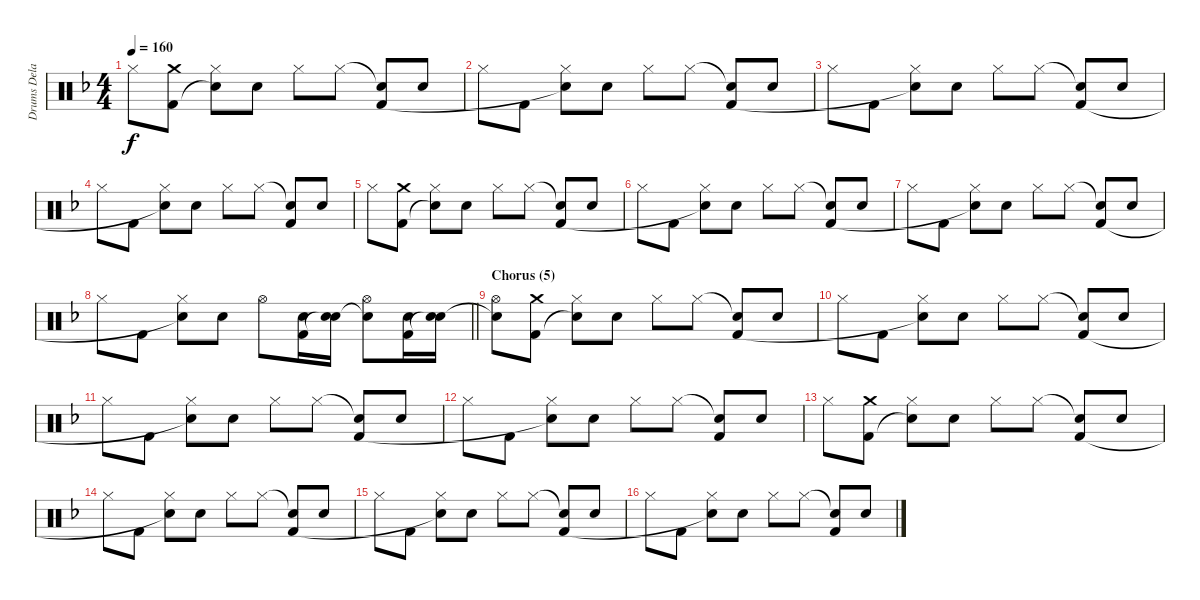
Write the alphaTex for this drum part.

\track ("Drums Delay" "Drums Dela") {instrument percussion}
\staff {score}
\articulation defaults
\ts (4 4)
\tempo 160
\clef neutral
\ks f "Hi-Hat (closed)".8{dy f}
("Crash medium (hit)" "Kick (hit) 2").8 ("Hi-Hat (closed)" "Snare (hit)"{t}).8 "Electric Snare (hit)".8 "Hi-Hat (closed)".8 "Hi-Hat (closed)".8 ("Snare (hit)"{t} "Kick (hit) 2").8 "Electric Snare (hit)".8 |
"Hi-Hat (closed)".8 "Kick (hit) 2".8 ("Hi-Hat (closed)" "Snare (hit)"{t}).8 "Electric Snare (hit)".8 "Hi-Hat (closed)".8 "Hi-Hat (closed)".8 ("Snare (hit)"{t} "Kick (hit) 2").8 "Electric Snare (hit)".8 |
"Hi-Hat (closed)".8 "Kick (hit) 2".8 ("Hi-Hat (closed)" "Snare (hit)"{t}).8 "Electric Snare (hit)".8 "Hi-Hat (closed)".8 "Hi-Hat (closed)".8 ("Snare (hit)"{t} "Kick (hit) 2").8 "Electric Snare (hit)".8 |
"Hi-Hat (closed)".8 "Kick (hit) 2".8 ("Hi-Hat (closed)" "Snare (hit)"{t}).8 "Electric Snare (hit)".8 "Hi-Hat (closed)".8 "Hi-Hat (closed)".8 ("Snare (hit)"{t} "Kick (hit) 2").8 "Electric Snare (hit)".8 |
"Hi-Hat (closed)".8 ("Crash medium (hit)" "Kick (hit) 2").8 ("Hi-Hat (closed)" "Snare (hit)"{t}).8 "Electric Snare (hit)".8 "Hi-Hat (closed)".8 "Hi-Hat (closed)".8 ("Snare (hit)"{t} "Kick (hit) 2").8 "Electric Snare (hit)".8 |
"Hi-Hat (closed)".8 "Kick (hit) 2".8 ("Hi-Hat (closed)" "Snare (hit)"{t}).8 "Electric Snare (hit)".8 "Hi-Hat (closed)".8 "Hi-Hat (closed)".8 ("Snare (hit)"{t} "Kick (hit) 2").8 "Electric Snare (hit)".8 |
"Hi-Hat (closed)".8 "Kick (hit) 2".8 ("Hi-Hat (closed)" "Snare (hit)"{t}).8 "Electric Snare (hit)".8 "Hi-Hat (closed)".8 "Hi-Hat (closed)".8 ("Snare (hit)"{t} "Kick (hit) 2").8 "Electric Snare (hit)".8 |
\barLineRight lightlight "Hi-Hat (closed)".8 "Kick (hit) 2".8
("Hi-Hat (closed)" "Snare (hit)"{t}).8 "Electric Snare (hit)".8 "Hi-Hat (open)".8 ("Electric Snare (hit)" "Kick (hit) 2").16 ("Electric Snare (hit)" "Snare (hit)"{t}).16 ("Hi-Hat (open)" "Snare (hit)"{t}).8 ("Electric Snare (hit)" "Kick (hit) 2").16 ("Electric Snare (hit)" "Snare (hit)"{t}).16 |
\section ("" "Chorus (5)")
("Hi-Hat (open)" "Snare (hit)"{t}).8 ("Crash medium (hit)" "Kick (hit) 2").8 ("Hi-Hat (closed)" "Snare (hit)"{t}).8 "Electric Snare (hit)".8 "Hi-Hat (closed)".8 "Hi-Hat (closed)".8 ("Snare (hit)"{t} "Kick (hit) 2").8 "Electric Snare (hit)".8 |
"Hi-Hat (closed)".8 "Kick (hit) 2".8 ("Hi-Hat (closed)" "Snare (hit)"{t}).8 "Electric Snare (hit)".8 "Hi-Hat (closed)".8 "Hi-Hat (closed)".8 ("Snare (hit)"{t} "Kick (hit) 2").8 "Electric Snare (hit)".8 |
"Hi-Hat (closed)".8 "Kick (hit) 2".8 ("Hi-Hat (closed)" "Snare (hit)"{t}).8 "Electric Snare (hit)".8 "Hi-Hat (closed)".8 "Hi-Hat (closed)".8 ("Snare (hit)"{t} "Kick (hit) 2").8 "Electric Snare (hit)".8 |
"Hi-Hat (closed)".8 "Kick (hit) 2".8 ("Hi-Hat (closed)" "Snare (hit)"{t}).8 "Electric Snare (hit)".8 "Hi-Hat (closed)".8 "Hi-Hat (closed)".8 ("Snare (hit)"{t} "Kick (hit) 2").8 "Electric Snare (hit)".8 |
"Hi-Hat (closed)".8 ("Crash medium (hit)" "Kick (hit) 2").8 ("Hi-Hat (closed)" "Snare (hit)"{t}).8 "Electric Snare (hit)".8 "Hi-Hat (closed)".8 "Hi-Hat (closed)".8 ("Snare (hit)"{t} "Kick (hit) 2").8 "Electric Snare (hit)".8 |
"Hi-Hat (closed)".8 "Kick (hit) 2".8 ("Hi-Hat (closed)" "Snare (hit)"{t}).8 "Electric Snare (hit)".8 "Hi-Hat (closed)".8 "Hi-Hat (closed)".8 ("Snare (hit)"{t} "Kick (hit) 2").8 "Electric Snare (hit)".8 |
"Hi-Hat (closed)".8 "Kick (hit) 2".8 ("Hi-Hat (closed)" "Snare (hit)"{t}).8 "Electric Snare (hit)".8 "Hi-Hat (closed)".8 "Hi-Hat (closed)".8 ("Snare (hit)"{t} "Kick (hit) 2").8 "Electric Snare (hit)".8 |
"Hi-Hat (closed)".8 "Kick (hit) 2".8 ("Hi-Hat (closed)" "Snare (hit)"{t}).8 "Electric Snare (hit)".8 "Hi-Hat (closed)".8 "Hi-Hat (closed)".8 ("Snare (hit)"{t} "Kick (hit) 2").8 "Electric Snare (hit)".8
